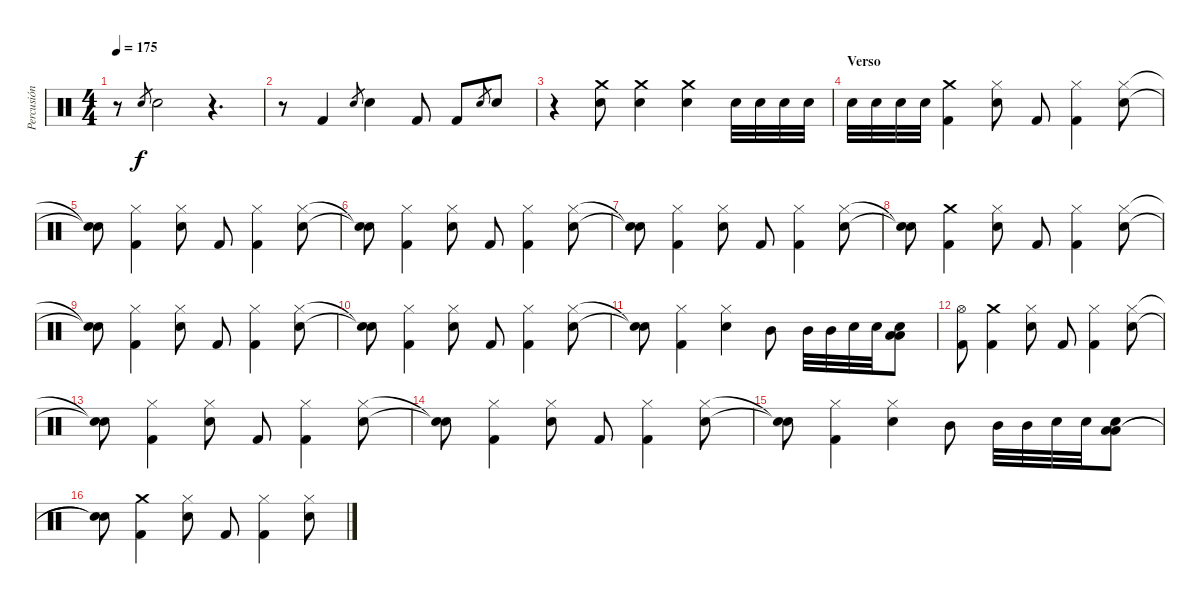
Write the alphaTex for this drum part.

\track ("Percusión" "Percusión") {instrument percussion}
\staff {score}
\articulation defaults
\ts (4 4)
\tempo 175
\clef neutral
\ks c
r.8{dy f} "Snare (hit) 2".8{gr} "Snare (hit) 2".2 r.4{d} |
r.8 "Kick (hit) 2".4 "Snare (hit) 2".8{gr} "Snare (hit) 2".4 "Kick (hit) 2".8 "Kick (hit) 2".8 "Snare (hit) 2".8{gr} "Snare (hit) 2".8 |
r.4 ("Crash medium (hit)" "Snare (hit) 2").8 ("Crash medium (hit)" "Snare (hit) 2").4 ("Crash medium (hit)" "Snare (hit) 2").4 "Snare (hit) 2".32 "Snare (hit) 2".32 "Snare (hit) 2".32 "Snare (hit) 2".32 |
\section ("" "Verso")
"Snare (hit) 2".32 "Snare (hit) 2".32 "Snare (hit) 2".32 "Snare (hit) 2".32 ("Crash medium (hit)" "Kick (hit) 2").4 ("Snare (hit) 2" "Hi-Hat (closed)").8 "Kick (hit) 2".8 ("Kick (hit) 2" "Hi-Hat (closed)").4 ("Snare (hit) 2" "Hi-Hat (closed)").8 |
("Snare (hit)"{t} "Snare (hit)"{t}).8 ("Hi-Hat (closed)" "Kick (hit) 2").4 ("Snare (hit) 2" "Hi-Hat (closed)").8 "Kick (hit) 2".8 ("Kick (hit) 2" "Hi-Hat (closed)").4 ("Snare (hit) 2" "Hi-Hat (closed)").8 |
("Snare (hit)"{t} "Snare (hit)"{t}).8 ("Hi-Hat (closed)" "Kick (hit) 2").4 ("Snare (hit) 2" "Hi-Hat (closed)").8 "Kick (hit) 2".8 ("Kick (hit) 2" "Hi-Hat (closed)").4 ("Snare (hit) 2" "Hi-Hat (closed)").8 |
("Snare (hit)"{t} "Snare (hit)"{t}).8 ("Hi-Hat (closed)" "Kick (hit) 2").4 ("Snare (hit) 2" "Hi-Hat (closed)").8 "Kick (hit) 2".8 ("Kick (hit) 2" "Hi-Hat (closed)").4 ("Snare (hit) 2" "Hi-Hat (closed)").8 |
("Snare (hit)"{t} "Snare (hit)"{t}).8 ("Crash medium (hit)" "Kick (hit) 2").4 ("Snare (hit) 2" "Hi-Hat (closed)").8 "Kick (hit) 2".8 ("Kick (hit) 2" "Hi-Hat (closed)").4 ("Snare (hit) 2" "Hi-Hat (closed)").8 |
("Snare (hit)"{t} "Snare (hit)"{t}).8 ("Hi-Hat (closed)" "Kick (hit) 2").4 ("Snare (hit) 2" "Hi-Hat (closed)").8 "Kick (hit) 2".8 ("Kick (hit) 2" "Hi-Hat (closed)").4 ("Snare (hit) 2" "Hi-Hat (closed)").8 |
("Snare (hit)"{t} "Snare (hit)"{t}).8 ("Hi-Hat (closed)" "Kick (hit) 2").4 ("Snare (hit) 2" "Hi-Hat (closed)").8 "Kick (hit) 2".8 ("Kick (hit) 2" "Hi-Hat (closed)").4 ("Snare (hit) 2" "Hi-Hat (closed)").8 |
("Snare (hit)"{t} "Snare (hit)"{t}).8 ("Hi-Hat (closed)" "Kick (hit) 2").4 ("Snare (hit) 2" "Hi-Hat (closed)").4 "Mid Tom (hit)".8 "Mid Tom (hit)".32 "Mid Tom (hit)".32 "Snare (hit) 2".32 "Snare (hit) 2".32 ("Low Tom (hit)" "Low Floor Tom (hit)" "Snare (hit) 2").8 |
("Hi-Hat (open)" "Kick (hit) 2").8 ("Crash medium (hit)" "Kick (hit) 2").4 ("Snare (hit) 2" "Hi-Hat (closed)").8 "Kick (hit) 2".8 ("Kick (hit) 2" "Hi-Hat (closed)").4 ("Snare (hit) 2" "Hi-Hat (closed)").8 |
("Snare (hit)"{t} "Snare (hit)"{t}).8 ("Hi-Hat (closed)" "Kick (hit) 2").4 ("Snare (hit) 2" "Hi-Hat (closed)").8 "Kick (hit) 2".8 ("Kick (hit) 2" "Hi-Hat (closed)").4 ("Snare (hit) 2" "Hi-Hat (closed)").8 |
("Snare (hit)"{t} "Snare (hit)"{t}).8 ("Hi-Hat (closed)" "Kick (hit) 2").4 ("Snare (hit) 2" "Hi-Hat (closed)").8 "Kick (hit) 2".8 ("Kick (hit) 2" "Hi-Hat (closed)").4 ("Snare (hit) 2" "Hi-Hat (closed)").8 |
("Snare (hit)"{t} "Snare (hit)"{t}).8 ("Hi-Hat (closed)" "Kick (hit) 2").4 ("Snare (hit) 2" "Hi-Hat (closed)").4 "Mid Tom (hit)".8 "Mid Tom (hit)".32 "Mid Tom (hit)".32 "Snare (hit) 2".32 "Snare (hit) 2".32 ("Low Tom (hit)" "Low Floor Tom (hit)" "Snare (hit) 2").8 |
("Snare (hit)"{t} "Snare (hit)"{t}).8 ("Crash medium (hit)" "Kick (hit) 2").4 ("Snare (hit) 2" "Hi-Hat (closed)").8 "Kick (hit) 2".8 ("Kick (hit) 2" "Hi-Hat (closed)").4 ("Snare (hit) 2" "Hi-Hat (closed)").8
